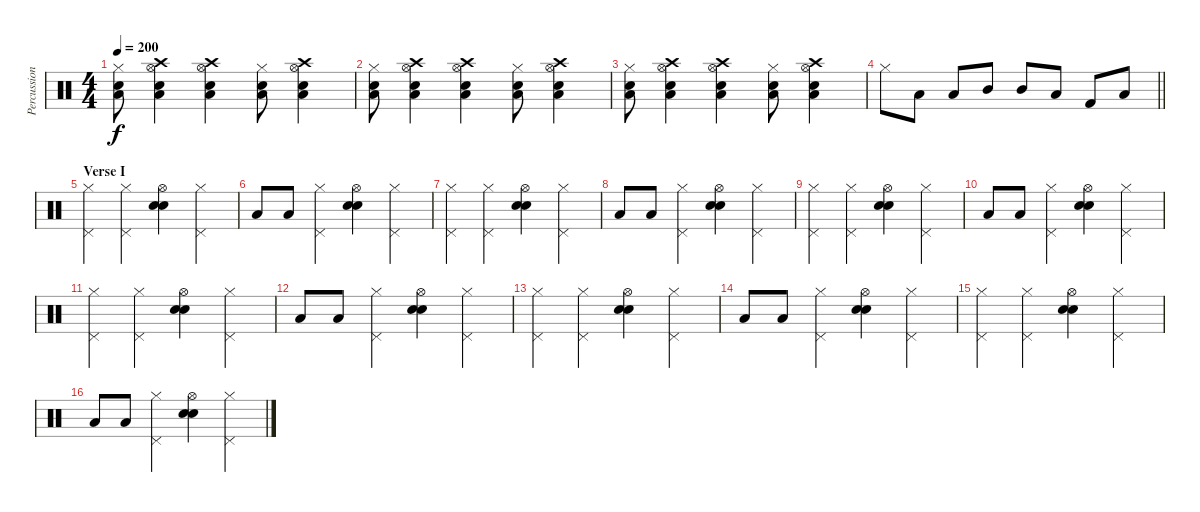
\track ("Percussion" "Percussion") {instrument percussion}
\staff {score}
\articulation defaults
\ts (4 4)
\tempo 200
\clef neutral
\ks c
("Snare (hit) 2" "Hi-Hat (closed)" "Low Tom (hit)").8{dy f} ("Electric Snare (hit)" "Low Tom (hit)" "Hi-Hat (open)" "Crash high (hit)").4 ("Electric Snare (hit)" "Low Tom (hit)" "Hi-Hat (open)" "Crash high (hit)").4 ("Snare (hit) 2" "Hi-Hat (closed)" "Low Tom (hit)").8 ("Electric Snare (hit)" "Low Tom (hit)" "Hi-Hat (open)" "Crash high (hit)").4 |
("Snare (hit) 2" "Hi-Hat (closed)" "Low Tom (hit)").8 ("Electric Snare (hit)" "Low Tom (hit)" "Hi-Hat (open)" "Crash high (hit)").4 ("Electric Snare (hit)" "Low Tom (hit)" "Hi-Hat (open)" "Crash high (hit)").4 ("Snare (hit) 2" "Hi-Hat (closed)" "Low Tom (hit)").8 ("Electric Snare (hit)" "Low Tom (hit)" "Hi-Hat (open)" "Crash high (hit)").4 |
("Snare (hit) 2" "Hi-Hat (closed)" "Low Tom (hit)").8 ("Electric Snare (hit)" "Low Tom (hit)" "Hi-Hat (open)" "Crash high (hit)").4 ("Electric Snare (hit)" "Low Tom (hit)" "Hi-Hat (open)" "Crash high (hit)").4 ("Snare (hit) 2" "Hi-Hat (closed)" "Low Tom (hit)").8 ("Electric Snare (hit)" "Low Tom (hit)" "Hi-Hat (open)" "Crash high (hit)").4 |
\barLineRight lightlight "Hi-Hat (closed)".8 "Low Tom (hit)".8 "Low Tom (hit)".8 "Mid Tom (hit)".8 "Mid Tom (hit)".8 "Low Tom (hit)".8 "Kick (hit) 2".8 "Low Tom (hit)".8
|
\section ("" "Verse I")
("Hi-Hat (closed)" "Pedal Hi-Hat (hit)").4 ("Hi-Hat (closed)" "Pedal Hi-Hat (hit)").4 ("Snare (hit) 2" "Electric Snare (hit)" "Hi-Hat (open)").4 ("Hi-Hat (closed)" "Pedal Hi-Hat (hit)").4 |
"Low Tom (hit)".8 "Low Tom (hit)".8 ("Hi-Hat (closed)" "Pedal Hi-Hat (hit)").4 ("Snare (hit) 2" "Electric Snare (hit)" "Hi-Hat (open)").4 ("Hi-Hat (closed)" "Pedal Hi-Hat (hit)").4 |
("Hi-Hat (closed)" "Pedal Hi-Hat (hit)").4 ("Hi-Hat (closed)" "Pedal Hi-Hat (hit)").4 ("Snare (hit) 2" "Electric Snare (hit)" "Hi-Hat (open)").4 ("Hi-Hat (closed)" "Pedal Hi-Hat (hit)").4 |
"Low Tom (hit)".8 "Low Tom (hit)".8 ("Hi-Hat (closed)" "Pedal Hi-Hat (hit)").4 ("Snare (hit) 2" "Electric Snare (hit)" "Hi-Hat (open)").4 ("Hi-Hat (closed)" "Pedal Hi-Hat (hit)").4 |
("Hi-Hat (closed)" "Pedal Hi-Hat (hit)").4 ("Hi-Hat (closed)" "Pedal Hi-Hat (hit)").4 ("Snare (hit) 2" "Electric Snare (hit)" "Hi-Hat (open)").4 ("Hi-Hat (closed)" "Pedal Hi-Hat (hit)").4 |
"Low Tom (hit)".8 "Low Tom (hit)".8 ("Hi-Hat (closed)" "Pedal Hi-Hat (hit)").4 ("Snare (hit) 2" "Electric Snare (hit)" "Hi-Hat (open)").4 ("Hi-Hat (closed)" "Pedal Hi-Hat (hit)").4 |
("Hi-Hat (closed)" "Pedal Hi-Hat (hit)").4 ("Hi-Hat (closed)" "Pedal Hi-Hat (hit)").4 ("Snare (hit) 2" "Electric Snare (hit)" "Hi-Hat (open)").4 ("Hi-Hat (closed)" "Pedal Hi-Hat (hit)").4 |
"Low Tom (hit)".8 "Low Tom (hit)".8 ("Hi-Hat (closed)" "Pedal Hi-Hat (hit)").4 ("Snare (hit) 2" "Electric Snare (hit)" "Hi-Hat (open)").4 ("Hi-Hat (closed)" "Pedal Hi-Hat (hit)").4 |
("Hi-Hat (closed)" "Pedal Hi-Hat (hit)").4 ("Hi-Hat (closed)" "Pedal Hi-Hat (hit)").4 ("Snare (hit) 2" "Electric Snare (hit)" "Hi-Hat (open)").4 ("Hi-Hat (closed)" "Pedal Hi-Hat (hit)").4 |
"Low Tom (hit)".8 "Low Tom (hit)".8 ("Hi-Hat (closed)" "Pedal Hi-Hat (hit)").4 ("Snare (hit) 2" "Electric Snare (hit)" "Hi-Hat (open)").4 ("Hi-Hat (closed)" "Pedal Hi-Hat (hit)").4 |
("Hi-Hat (closed)" "Pedal Hi-Hat (hit)").4 ("Hi-Hat (closed)" "Pedal Hi-Hat (hit)").4 ("Snare (hit) 2" "Electric Snare (hit)" "Hi-Hat (open)").4 ("Hi-Hat (closed)" "Pedal Hi-Hat (hit)").4 |
"Low Tom (hit)".8 "Low Tom (hit)".8 ("Hi-Hat (closed)" "Pedal Hi-Hat (hit)").4 ("Snare (hit) 2" "Electric Snare (hit)" "Hi-Hat (open)").4 ("Hi-Hat (closed)" "Pedal Hi-Hat (hit)").4
